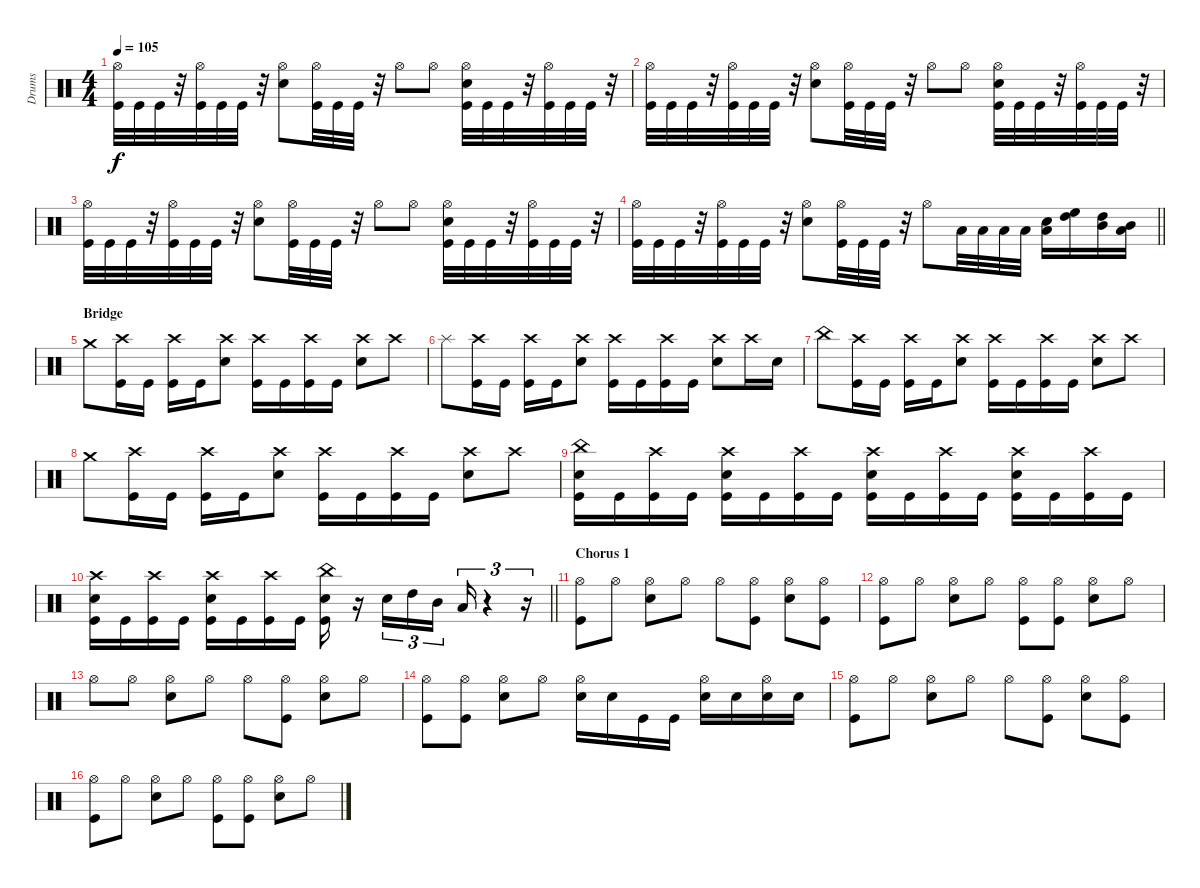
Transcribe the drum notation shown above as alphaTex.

\track ("Drums" "Drums") {instrument percussion}
\staff {score}
\articulation defaults
\ts (4 4)
\tempo 105
\clef neutral
\ks c
("Kick (hit)" "Hi-Hat (open)").32{dy f} "Kick (hit)".32 "Kick (hit)".32 r.32 ("Kick (hit)" "Hi-Hat (open)").32 "Kick (hit)".32 "Kick (hit)".32 r.32 ("Hi-Hat (open)" "Snare (hit) 2").8 ("Hi-Hat (open)" "Kick (hit)").32 "Kick (hit)".32 "Kick (hit)".32 r.32 "Hi-Hat (open)".8 "Hi-Hat (open)".8 ("Hi-Hat (open)" "Snare (hit) 2" "Kick (hit)").32 "Kick (hit)".32 "Kick (hit)".32 r.32 ("Hi-Hat (open)" "Kick (hit)").32 "Kick (hit)".32 "Kick (hit)".32 r.32 |
("Kick (hit)" "Hi-Hat (open)").32 "Kick (hit)".32 "Kick (hit)".32 r.32 ("Kick (hit)" "Hi-Hat (open)").32 "Kick (hit)".32 "Kick (hit)".32 r.32 ("Hi-Hat (open)" "Snare (hit) 2").8 ("Hi-Hat (open)" "Kick (hit)").32 "Kick (hit)".32 "Kick (hit)".32 r.32 "Hi-Hat (open)".8 "Hi-Hat (open)".8 ("Hi-Hat (open)" "Snare (hit) 2" "Kick (hit)").32 "Kick (hit)".32 "Kick (hit)".32 r.32 ("Hi-Hat (open)" "Kick (hit)").32 "Kick (hit)".32 "Kick (hit)".32 r.32 |
("Kick (hit)" "Hi-Hat (open)").32 "Kick (hit)".32 "Kick (hit)".32 r.32 ("Kick (hit)" "Hi-Hat (open)").32 "Kick (hit)".32 "Kick (hit)".32 r.32 ("Hi-Hat (open)" "Snare (hit) 2").8 ("Hi-Hat (open)" "Kick (hit)").32 "Kick (hit)".32 "Kick (hit)".32 r.32 "Hi-Hat (open)".8 "Hi-Hat (open)".8 ("Hi-Hat (open)" "Snare (hit) 2" "Kick (hit)").32 "Kick (hit)".32 "Kick (hit)".32 r.32 ("Hi-Hat (open)" "Kick (hit)").32 "Kick (hit)".32 "Kick (hit)".32 r.32 |
\barLineRight lightlight
("Kick (hit)" "Hi-Hat (open)").32 "Kick (hit)".32 "Kick (hit)".32 r.32 ("Kick (hit)" "Hi-Hat (open)").32 "Kick (hit)".32 "Kick (hit)".32 r.32 ("Hi-Hat (open)" "Snare (hit) 2").8 ("Hi-Hat (open)" "Kick (hit)").32 "Kick (hit)".32 "Kick (hit)".32 r.32 "Hi-Hat (open)".8 "Low Tom (hit)".32 "Low Tom (hit)".32 "Low Tom (hit)".32 "Low Tom (hit)".32 ("Low Tom (hit)" "Snare (hit) 2").16 ("High Floor Tom (hit)" "High Tom (hit)").16 ("High Tom (hit)" "Mid Tom (hit)").16 ("Mid Tom (hit)" "Low Tom (hit)").16 |
\section ("" "Bridge")
"Crash medium (hit)".8 ("Crash high (hit)" "Kick (hit)").16 "Kick (hit)".16 ("Crash high (hit)" "Kick (hit)").16 "Kick (hit)".16 ("Crash high (hit)" "Snare (hit) 2").8 ("Crash high (hit)" "Kick (hit)").16 "Kick (hit)".16 ("Crash high (hit)" "Kick (hit)").16 "Kick (hit)".16 ("Crash high (hit)" "Snare (hit) 2").8 "Crash high (hit)".8 |
"Splash (hit)".8 ("Crash high (hit)" "Kick (hit)").16 "Kick (hit)".16 ("Crash high (hit)" "Kick (hit)").16 "Kick (hit)".16 ("Crash high (hit)" "Snare (hit) 2").8 ("Crash high (hit)" "Kick (hit)").16 "Kick (hit)".16 ("Crash high (hit)" "Kick (hit)").16 "Kick (hit)".16 ("Crash high (hit)" "Snare (hit) 2").8 "Crash high (hit)".16 "Snare (hit) 2".16 |
"China (hit)".8 ("Crash high (hit)" "Kick (hit)").16 "Kick (hit)".16 ("Crash high (hit)" "Kick (hit)").16 "Kick (hit)".16 ("Crash high (hit)" "Snare (hit) 2").8 ("Crash high (hit)" "Kick (hit)").16 "Kick (hit)".16 ("Crash high (hit)" "Kick (hit)").16 "Kick (hit)".16 ("Crash high (hit)" "Snare (hit) 2").8 "Crash high (hit)".8 |
"Crash medium (hit)".8 ("Crash high (hit)" "Kick (hit)").16 "Kick (hit)".16 ("Crash high (hit)" "Kick (hit)").16 "Kick (hit)".16 ("Crash high (hit)" "Snare (hit) 2").8 ("Crash high (hit)" "Kick (hit)").16 "Kick (hit)".16 ("Crash high (hit)" "Kick (hit)").16 "Kick (hit)".16 ("Crash high (hit)" "Snare (hit) 2").8 "Crash high (hit)".8 |
("China (hit)" "Snare (hit) 2" "Kick (hit)").16 "Kick (hit)".16 ("Crash high (hit)" "Kick (hit)").16 "Kick (hit)".16 ("Crash high (hit)" "Kick (hit)" "Snare (hit) 2").16 "Kick (hit)".16 ("Crash high (hit)" "Kick (hit)").16 "Kick (hit)".16 ("Crash high (hit)" "Kick (hit)" "Snare (hit) 2").16 "Kick (hit)".16 ("Crash high (hit)" "Kick (hit)").16 "Kick (hit)".16 ("Crash high (hit)" "Kick (hit)" "Snare (hit) 2").16 "Kick (hit)".16 ("Crash high (hit)" "Kick (hit)").16 "Kick (hit)".16 |
\barLineRight lightlight
("Crash high (hit)" "Snare (hit) 2" "Kick (hit)").16 "Kick (hit)".16 ("Crash high (hit)" "Kick (hit)").16 "Kick (hit)".16 ("Crash high (hit)" "Kick (hit)" "Snare (hit) 2").16 "Kick (hit)".16 ("Crash high (hit)" "Kick (hit)").16 "Kick (hit)".16 ("China (hit)" "Kick (hit)" "Snare (hit) 2").16 r.16 "Snare (hit) 2".16{tu (3 2)} "High Tom (hit)".16{tu (3 2)} "Mid Tom (hit)".16{tu (3 2)} "Low Tom (hit)".16{tu (3 2)} r.4{tu (3 2)} r.16{tu (3 2)} |
\section ("" "Chorus 1")
("Kick (hit)" "Hi-Hat (open)").8 "Hi-Hat (open)".8 ("Snare (hit) 2" "Hi-Hat (open)").8 "Hi-Hat (open)".8 "Hi-Hat (open)".8 ("Kick (hit)" "Hi-Hat (open)").8 ("Snare (hit) 2" "Hi-Hat (open)").8 ("Kick (hit)" "Hi-Hat (open)").8 |
("Kick (hit)" "Hi-Hat (open)").8 "Hi-Hat (open)".8 ("Snare (hit) 2" "Hi-Hat (open)").8 "Hi-Hat (open)".8 ("Kick (hit)" "Hi-Hat (open)").8 ("Kick (hit)" "Hi-Hat (open)").8 ("Snare (hit) 2" "Hi-Hat (open)").8 "Hi-Hat (open)".8 |
"Hi-Hat (open)".8 "Hi-Hat (open)".8 ("Snare (hit) 2" "Hi-Hat (open)").8 "Hi-Hat (open)".8 "Hi-Hat (open)".8 ("Kick (hit)" "Hi-Hat (open)").8 ("Snare (hit) 2" "Hi-Hat (open)").8 "Hi-Hat (open)".8 |
("Kick (hit)" "Hi-Hat (open)").8 ("Kick (hit)" "Hi-Hat (open)").8 ("Snare (hit) 2" "Hi-Hat (open)").8 "Hi-Hat (open)".8 ("Snare (hit) 2" "Hi-Hat (open)").16 "Snare (hit) 2".16 "Kick (hit)".16 "Kick (hit)".16 ("Snare (hit) 2" "Hi-Hat (open)").16 "Snare (hit) 2".16 ("Snare (hit) 2" "Hi-Hat (open)").16 "Snare (hit) 2".16 |
("Kick (hit)" "Hi-Hat (open)").8 "Hi-Hat (open)".8 ("Snare (hit) 2" "Hi-Hat (open)").8 "Hi-Hat (open)".8 "Hi-Hat (open)".8 ("Kick (hit)" "Hi-Hat (open)").8 ("Snare (hit) 2" "Hi-Hat (open)").8 ("Kick (hit)" "Hi-Hat (open)").8 |
("Kick (hit)" "Hi-Hat (open)").8 "Hi-Hat (open)".8 ("Snare (hit) 2" "Hi-Hat (open)").8 "Hi-Hat (open)".8 ("Kick (hit)" "Hi-Hat (open)").8 ("Kick (hit)" "Hi-Hat (open)").8 ("Snare (hit) 2" "Hi-Hat (open)").8 "Hi-Hat (open)".8
